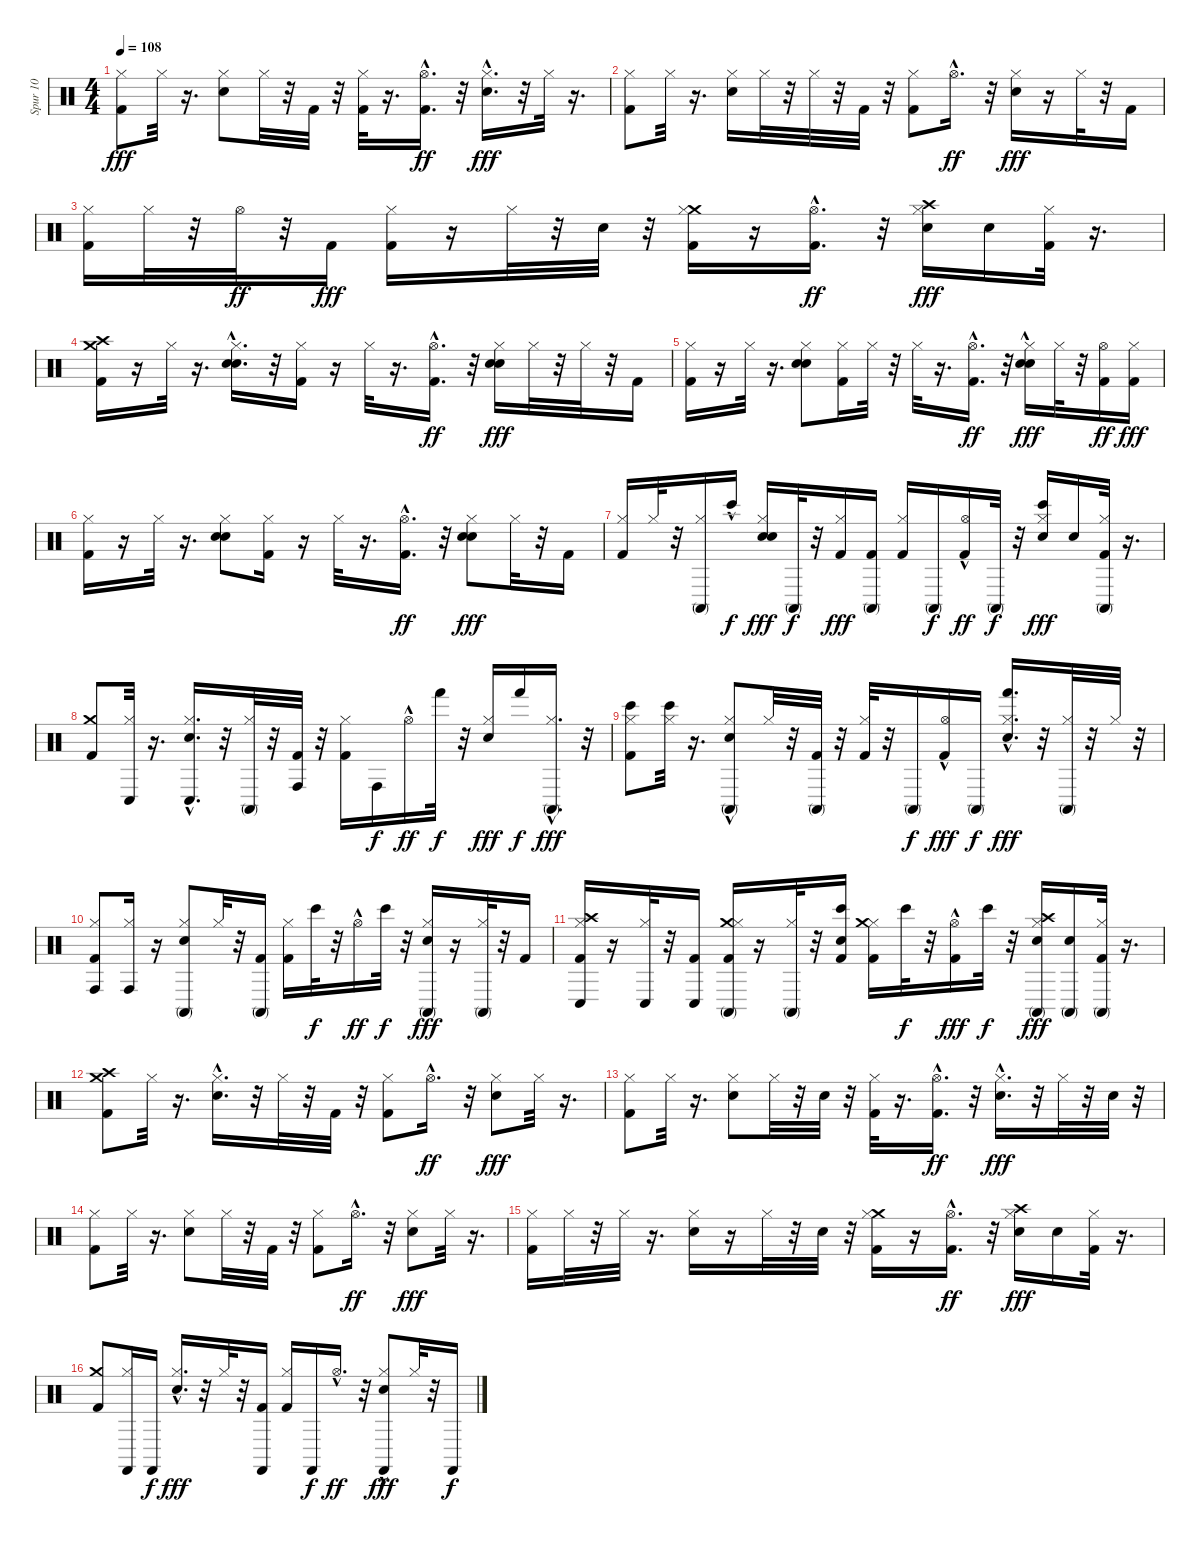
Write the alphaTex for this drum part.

\track ("Spur 10" "Spur 10") {instrument percussion}
\staff {score}
\articulation defaults
\ts (4 4)
\tempo 108
\clef neutral
\ks c
("Kick (hit) 2" "Hi-Hat (closed)").8{dy fff} "Hi-Hat (closed)".32 r.16{d} ("Snare (hit) 2" "Hi-Hat (closed)").8 "Hi-Hat (closed)".32 r.32 "Kick (hit) 2".32 r.32 ("Kick (hit) 2" "Hi-Hat (closed)").32 r.16{d} ("Kick (hit) 2" "Hi-Hat (open)"{hac}).16{d dy ff} r.32 ("Snare (hit) 2"{hac} "Hi-Hat (closed)").16{d dy fff} r.32 "Hi-Hat (closed)".32 r.16{d} |
("Kick (hit) 2" "Hi-Hat (closed)").8 "Hi-Hat (closed)".32 r.16{d} ("Snare (hit) 2" "Hi-Hat (closed)").16 "Hi-Hat (closed)".32 r.32 "Hi-Hat (closed)".32 r.32 "Kick (hit) 2".32 r.32 ("Kick (hit) 2" "Hi-Hat (closed)").8 "Hi-Hat (open)"{hac}.16{d dy ff} r.32 ("Snare (hit) 2" "Hi-Hat (closed)").16{dy fff} r.16 "Hi-Hat (closed)".32 r.32 "Kick (hit) 2".16 |
("Kick (hit) 2" "Hi-Hat (closed)").16 "Hi-Hat (closed)".32 r.32 "Hi-Hat (open)".32{dy ff} r.32 "Kick (hit) 2".16{dy fff} ("Kick (hit) 2" "Hi-Hat (closed)").16 r.16 "Hi-Hat (closed)".32 r.32 "Electric Snare (hit)".32 r.32 ("Crash medium (hit)" "Kick (hit) 2" "Hi-Hat (closed)").16 r.16 ("Kick (hit) 2" "Hi-Hat (open)"{hac}).16{d dy ff} r.32 ("Crash high (hit)" "Electric Snare (hit)" "Hi-Hat (closed)").16{dy fff} "Electric Snare (hit)".16 ("Kick (hit) 2" "Hi-Hat (closed)").32 r.16{d} |
("Kick (hit) 2" "Crash medium (hit)" "Crash high (hit)").16 r.16 "Hi-Hat (closed)".32 r.16{d} ("Hand Clap (hit)" "Snare (hit) 2"{hac} "Hi-Hat (closed)").16{d} r.32 ("Kick (hit) 2" "Hi-Hat (closed)").16 r.16 "Hi-Hat (closed)".32 r.16{d} ("Kick (hit) 2" "Hi-Hat (open)"{hac}).16{d dy ff} r.32 ("Hand Clap (hit)" "Snare (hit) 2" "Hi-Hat (closed)").16{dy fff} "Hi-Hat (closed)".32 r.32 "Hi-Hat (closed)".32 r.32 "Kick (hit) 2".16 |
("Kick (hit) 2" "Hi-Hat (closed)").16 r.16 "Hi-Hat (closed)".32 r.16{d} ("Hand Clap (hit)" "Snare (hit) 2" "Hi-Hat (closed)").8 ("Kick (hit) 2" "Hi-Hat (closed)").16 "Hi-Hat (closed)".32 r.32 "Hi-Hat (closed)".32 r.16{d} ("Kick (hit) 2" "Hi-Hat (open)"{hac}).16{d dy ff} r.32 ("Hand Clap (hit)" "Snare (hit) 2"{hac} "Hi-Hat (closed)").16{dy fff} "Hi-Hat (closed)".32 r.32 ("Kick (hit) 2" "Hi-Hat (open)").16{dy ff} ("Hi-Hat (closed)" "Kick (hit) 2").16{dy fff} |
("Kick (hit) 2" "Hi-Hat (closed)").16 r.16 "Hi-Hat (closed)".32 r.16{d} ("Hand Clap (hit)" "Snare (hit) 2" "Hi-Hat (closed)").8 ("Kick (hit) 2" "Hi-Hat (closed)").16 r.16 "Hi-Hat (closed)".32 r.16{d} ("Kick (hit) 2" "Hi-Hat (open)"{hac}).16{d dy ff} r.32 ("Hand Clap (hit)" "Snare (hit) 2" "Hi-Hat (closed)").8{dy fff} "Hi-Hat (closed)".32 r.32 "Kick (hit) 2".16 |
("Kick (hit) 2" "Hi-Hat (closed)").16 "Hi-Hat (closed)".32 r.32 ("Hi-Hat (closed)" "Conga high (mute)").16 "Bongo High (hit)"{hac}.16{dy f} ("Hand Clap (hit)" "Snare (hit) 2" "Hi-Hat (closed)").16{dy fff} "Conga high (mute)".32{dy f} r.32 ("Kick (hit) 2" "Hi-Hat (closed)").16{dy fff} ("Kick (hit) 2" "Conga high (mute)").16 ("Kick (hit) 2" "Hi-Hat (closed)").16 "Conga high (mute)".16{dy f} ("Kick (hit) 2" "Hi-Hat (open)"{hac}).16{dy ff} "Conga high (mute)".32{dy f} r.32 ("Electric Snare (hit)" "Hi-Hat (closed)" "Bongo High (hit)").16{dy fff} "Electric Snare (hit)".16 ("Kick (hit) 2" "Hi-Hat (closed)" "Conga high (mute)").32 r.16{d} |
("Crash medium (hit)" "Kick (hit) 2").8 ("Conga low (hit)" "Hi-Hat (closed)").32 r.16{d} ("Conga low (hit)" "Hi-Hat (closed)" "Snare (hit) 2"{hac}).16{d} r.32 ("Conga high (mute)" "Hi-Hat (closed)").32 r.32 ("Conga high (hit)" "Kick (hit) 2").32 r.32 ("Hi-Hat (closed)" "Kick (hit) 2").16 "Conga high (hit)".16{dy f} "Hi-Hat (open)"{hac}.16{dy ff} "Hand (hit)".32{dy f} r.32 ("Hi-Hat (closed)" "Snare (hit) 2").16{dy fff} "Hand (hit)".16{dy f} ("Conga high (mute)"{hac} "Hi-Hat (closed)").16{d dy fff} r.32 |
("Bongo High (hit)" "Hi-Hat (closed)" "Kick (hit) 2").8 ("Bongo High (hit)" "Hi-Hat (closed)").32 r.16{d} ("Conga high (mute)"{hac} "Hi-Hat (closed)" "Snare (hit) 2").8 "Hi-Hat (closed)".32 r.32 ("Conga high (mute)" "Kick (hit) 2").32 r.32 ("Hi-Hat (closed)" "Kick (hit) 2").32 r.32 "Conga high (mute)".16{dy f} ("Hi-Hat (open)"{hac} "Kick (hit) 2").16{dy fff} "Conga high (mute)".16{dy f} ("Hand (hit)" "Hi-Hat (closed)" "Snare (hit) 2"{hac}).16{d dy fff} r.32 ("Conga high (mute)" "Hi-Hat (closed)").32 r.32 "Hi-Hat (closed)".32 r.32 |
("Conga high (hit)" "Hi-Hat (closed)" "Kick (hit) 2").8 ("Conga high (hit)" "Hi-Hat (closed)").16 r.16 ("Conga high (mute)" "Hi-Hat (closed)" "Snare (hit) 2").8 "Hi-Hat (closed)".32 r.32 ("Conga high (mute)" "Kick (hit) 2").16 ("Hi-Hat (closed)" "Kick (hit) 2").16 "Bongo High (hit)".32{dy f} r.32 "Hi-Hat (open)"{hac}.16{dy ff} "Bongo High (hit)".32{dy f} r.32 ("Conga high (mute)" "Hi-Hat (closed)" "Snare (hit) 2").16{dy fff} r.16 ("Conga high (mute)" "Hi-Hat (closed)").32 r.32 "Kick (hit) 2".16 |
("Conga low (hit)" "Crash high (hit)" "Hi-Hat (closed)" "Kick (hit) 2").16 r.16 ("Conga low (hit)" "Hi-Hat (closed)").32 r.32 ("Conga low (hit)" "Kick (hit) 2").16 ("Conga high (mute)" "Crash medium (hit)" "Kick (hit) 2" "Hi-Hat (closed)").16 r.16 ("Conga high (mute)" "Hi-Hat (closed)").32 r.32 ("Bongo High (hit)" "Kick (hit) 2" "Electric Snare (hit)").16 ("Hi-Hat (closed)" "Crash medium (hit)" "Kick (hit) 2").16 "Bongo High (hit)".32{dy f} r.32 ("Hi-Hat (open)"{hac} "Kick (hit) 2").16{dy fff} "Bongo High (hit)".32{dy f} r.32 ("Conga high (mute)" "Hi-Hat (closed)" "Crash high (hit)" "Electric Snare (hit)").16{dy fff} ("Conga high (mute)" "Electric Snare (hit)").16 ("Conga high (mute)" "Hi-Hat (closed)" "Kick (hit) 2").32 r.16{d} |
("Kick (hit) 2" "Crash medium (hit)" "Crash high (hit)").8 "Hi-Hat (closed)".32 r.16{d} ("Snare (hit) 2"{hac} "Hi-Hat (closed)").16{d} r.32 "Hi-Hat (closed)".32 r.32 "Kick (hit) 2".32 r.32 ("Kick (hit) 2" "Hi-Hat (closed)").8 "Hi-Hat (open)"{hac}.16{d dy ff} r.32 ("Snare (hit) 2" "Hi-Hat (closed)").8{dy fff} "Hi-Hat (closed)".32 r.16{d} |
("Kick (hit) 2" "Hi-Hat (closed)").8 "Hi-Hat (closed)".32 r.16{d} ("Snare (hit) 2" "Hi-Hat (closed)").8 "Hi-Hat (closed)".32 r.32 "Electric Snare (hit)".32 r.32 ("Kick (hit) 2" "Hi-Hat (closed)").32 r.16{d} ("Kick (hit) 2" "Hi-Hat (open)"{hac}).16{d dy ff} r.32 ("Snare (hit) 2"{hac} "Hi-Hat (closed)").16{d dy fff} r.32 "Hi-Hat (closed)".32 r.32 "Electric Snare (hit)".32 r.32 |
("Kick (hit) 2" "Hi-Hat (closed)").8 "Hi-Hat (closed)".32 r.16{d} ("Snare (hit) 2" "Hi-Hat (closed)").8 "Hi-Hat (closed)".32 r.32 "Kick (hit) 2".32 r.32 ("Kick (hit) 2" "Hi-Hat (closed)").8 "Hi-Hat (open)"{hac}.16{d dy ff} r.32 ("Snare (hit) 2" "Hi-Hat (closed)").8{dy fff} "Hi-Hat (closed)".32 r.16{d} |
("Kick (hit) 2" "Hi-Hat (closed)").16 "Hi-Hat (closed)".32 r.32 "Hi-Hat (closed)".32 r.16{d} ("Snare (hit) 2" "Hi-Hat (closed)").16 r.16 "Hi-Hat (closed)".32 r.32 "Electric Snare (hit)".32 r.32 ("Kick (hit) 2" "Crash medium (hit)" "Hi-Hat (closed)").16 r.16 ("Kick (hit) 2" "Hi-Hat (open)"{hac}).16{d dy ff} r.32 ("Electric Snare (hit)" "Crash high (hit)" "Hi-Hat (closed)").16{dy fff} "Electric Snare (hit)".16 ("Kick (hit) 2" "Hi-Hat (closed)").32 r.16{d} |
("Kick (hit) 2" "Crash medium (hit)").8 ("Castanets (hit)" "Hi-Hat (closed)").16 "Castanets (hit)".16{dy f} ("Snare (hit) 2"{hac} "Hi-Hat (closed)").16{d dy fff} r.32 "Hi-Hat (closed)".32 r.32 ("Kick (hit) 2" "Castanets (hit)").16 ("Kick (hit) 2" "Hi-Hat (closed)").16 "Castanets (hit)".16{dy f} "Hi-Hat (open)"{hac}.16{d dy ff} r.32 ("Snare (hit) 2" "Hi-Hat (closed)" "Castanets (hit)"{hac}).8{dy fff} "Hi-Hat (closed)".32 r.32 "Castanets (hit)".16{dy f}
